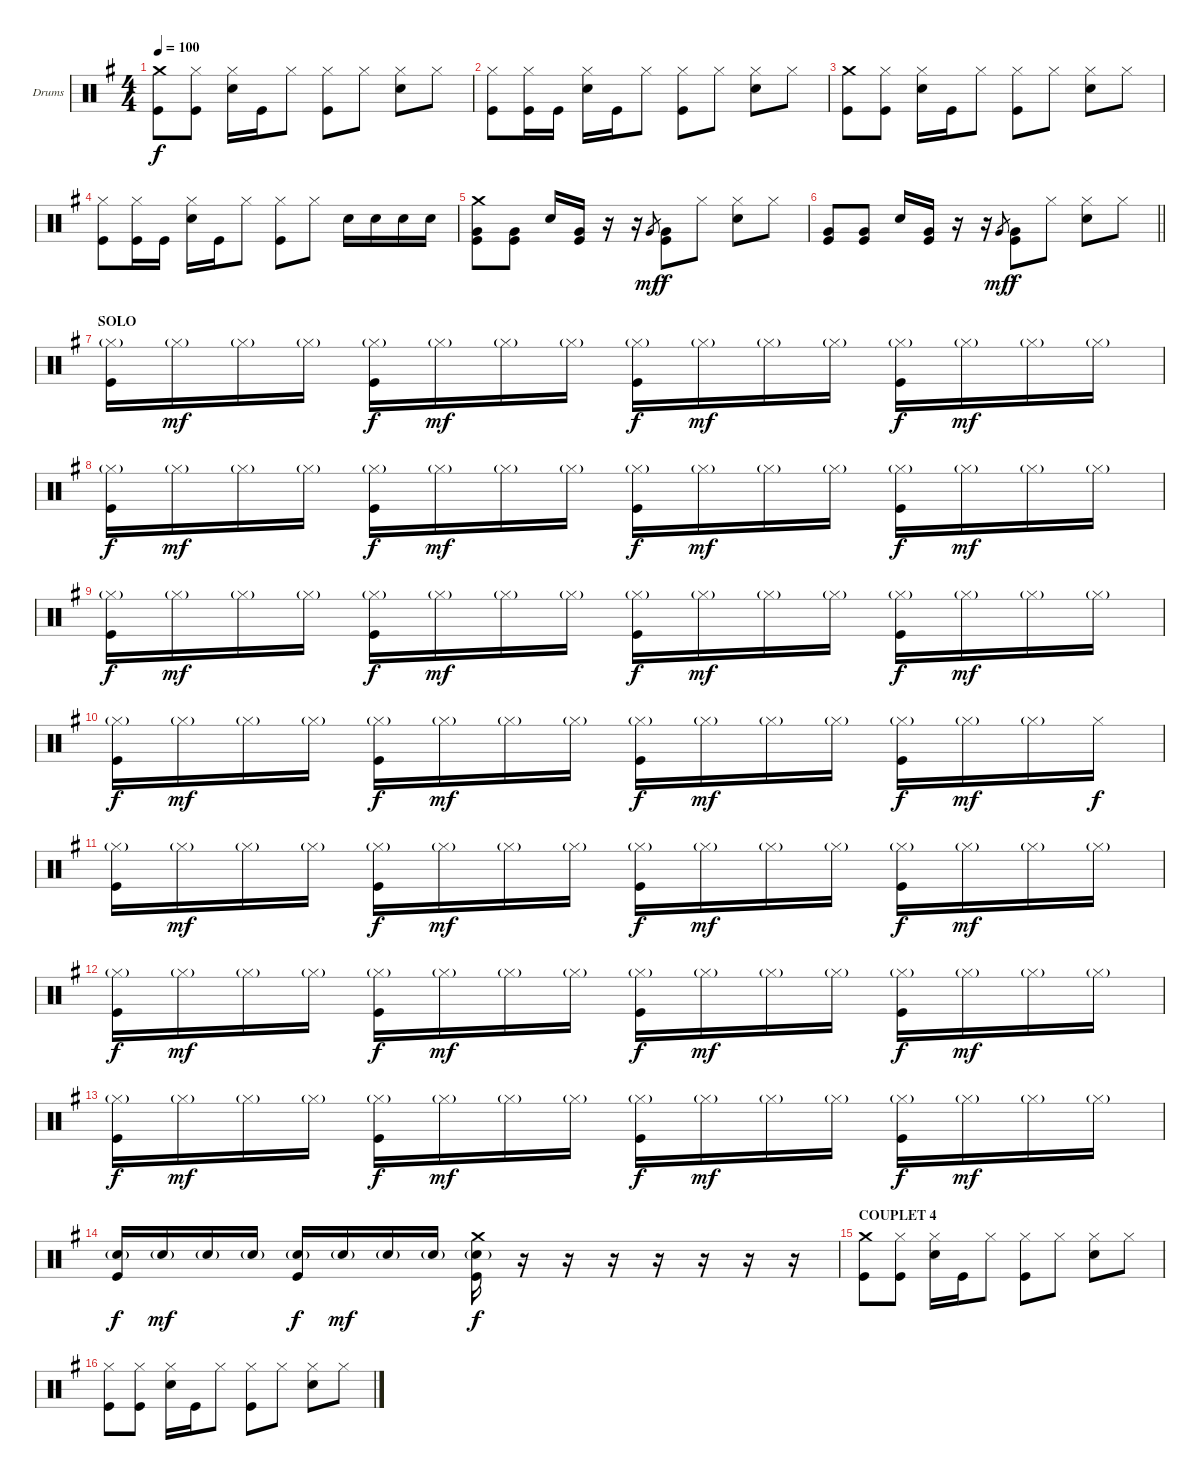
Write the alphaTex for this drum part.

\bracketExtendMode groupsimilarinstruments
\firstSystemTrackNameOrientation horizontal
\otherSystemsTrackNameOrientation horizontal
\track ("Drumkit" "Drums") {instrument percussion}
\staff {score}
\articulation defaults
\ts (4 4)
\tempo 100
\clef neutral
\ks eminor
("Crash medium (hit)" "Kick (hit)").8{dy f} ("Hi-Hat (closed)" "Kick (hit)").8 ("Hi-Hat (closed)" "Snare (hit) 2").16 "Kick (hit)".16 "Hi-Hat (closed)".8 ("Hi-Hat (closed)" "Kick (hit)").8 "Hi-Hat (closed)".8 ("Hi-Hat (closed)" "Snare (hit) 2").8 "Hi-Hat (closed)".8 |
("Hi-Hat (closed)" "Kick (hit)").8 ("Hi-Hat (closed)" "Kick (hit)").16 "Kick (hit)".16 ("Hi-Hat (closed)" "Snare (hit) 2").16 "Kick (hit)".16 "Hi-Hat (closed)".8 ("Hi-Hat (closed)" "Kick (hit)").8 "Hi-Hat (closed)".8 ("Hi-Hat (closed)" "Snare (hit) 2").8 "Hi-Hat (closed)".8 |
("Crash medium (hit)" "Kick (hit)").8 ("Hi-Hat (closed)" "Kick (hit)").8 ("Hi-Hat (closed)" "Snare (hit) 2").16 "Kick (hit)".16 "Hi-Hat (closed)".8 ("Hi-Hat (closed)" "Kick (hit)").8 "Hi-Hat (closed)".8 ("Hi-Hat (closed)" "Snare (hit) 2").8 "Hi-Hat (closed)".8 |
("Hi-Hat (closed)" "Kick (hit)").8 ("Hi-Hat (closed)" "Kick (hit)").16 "Kick (hit)".16 ("Hi-Hat (closed)" "Snare (hit) 2").16 "Kick (hit)".16 "Hi-Hat (closed)".8 ("Hi-Hat (closed)" "Kick (hit)").8 "Hi-Hat (closed)".8 "Snare (hit) 2".16 "Snare (hit) 2".16 "Snare (hit) 2".16 "Snare (hit) 2".16 |
("Very Low Tom (hit)" "Kick (hit)" "Crash medium (hit)").8 ("Very Low Tom (hit)" "Kick (hit)").8 "Snare (hit) 2".16 ("Very Low Tom (hit)" "Kick (hit)").16 r.16 r.16 "Very Low Tom (hit)".8{gr dy mf} ("Very Low Tom (hit)" "Kick (hit)").8{dy f} "Hi-Hat (closed)".8 ("Hi-Hat (closed)" "Snare (hit) 2").8 "Hi-Hat (closed)".8 |
\barLineRight lightlight
("Very Low Tom (hit)" "Kick (hit)").8 ("Very Low Tom (hit)" "Kick (hit)").8 "Snare (hit) 2".16 ("Very Low Tom (hit)" "Kick (hit)").16 r.16 r.16 "Very Low Tom (hit)".8{gr dy mf} ("Very Low Tom (hit)" "Kick (hit)").8{dy f} "Hi-Hat (closed)".8 ("Hi-Hat (closed)" "Snare (hit) 2").8 "Hi-Hat (closed)".8 |
\section ("" "SOLO")
("Kick (hit)" "Hi-Hat (closed)"{g}).16 "Hi-Hat (closed)"{g}.16{dy mf} "Hi-Hat (closed)"{g}.16 "Hi-Hat (closed)"{g}.16 ("Kick (hit)" "Hi-Hat (closed)"{g}).16{dy f} "Hi-Hat (closed)"{g}.16{dy mf} "Hi-Hat (closed)"{g}.16 "Hi-Hat (closed)"{g}.16 ("Kick (hit)" "Hi-Hat (closed)"{g}).16{dy f} "Hi-Hat (closed)"{g}.16{dy mf} "Hi-Hat (closed)"{g}.16 "Hi-Hat (closed)"{g}.16 ("Kick (hit)" "Hi-Hat (closed)"{g}).16{dy f} "Hi-Hat (closed)"{g}.16{dy mf} "Hi-Hat (closed)"{g}.16 "Hi-Hat (closed)"{g}.16 |
("Kick (hit)" "Hi-Hat (closed)"{g}).16{dy f} "Hi-Hat (closed)"{g}.16{dy mf} "Hi-Hat (closed)"{g}.16 "Hi-Hat (closed)"{g}.16 ("Kick (hit)" "Hi-Hat (closed)"{g}).16{dy f} "Hi-Hat (closed)"{g}.16{dy mf} "Hi-Hat (closed)"{g}.16 "Hi-Hat (closed)"{g}.16 ("Kick (hit)" "Hi-Hat (closed)"{g}).16{dy f} "Hi-Hat (closed)"{g}.16{dy mf} "Hi-Hat (closed)"{g}.16 "Hi-Hat (closed)"{g}.16 ("Kick (hit)" "Hi-Hat (closed)"{g}).16{dy f} "Hi-Hat (closed)"{g}.16{dy mf} "Hi-Hat (closed)"{g}.16 "Hi-Hat (closed)"{g}.16 |
("Kick (hit)" "Hi-Hat (closed)"{g}).16{dy f} "Hi-Hat (closed)"{g}.16{dy mf} "Hi-Hat (closed)"{g}.16 "Hi-Hat (closed)"{g}.16 ("Kick (hit)" "Hi-Hat (closed)"{g}).16{dy f} "Hi-Hat (closed)"{g}.16{dy mf} "Hi-Hat (closed)"{g}.16 "Hi-Hat (closed)"{g}.16 ("Kick (hit)" "Hi-Hat (closed)"{g}).16{dy f} "Hi-Hat (closed)"{g}.16{dy mf} "Hi-Hat (closed)"{g}.16 "Hi-Hat (closed)"{g}.16 ("Kick (hit)" "Hi-Hat (closed)"{g}).16{dy f} "Hi-Hat (closed)"{g}.16{dy mf} "Hi-Hat (closed)"{g}.16 "Hi-Hat (closed)"{g}.16 |
("Kick (hit)" "Hi-Hat (closed)"{g}).16{dy f} "Hi-Hat (closed)"{g}.16{dy mf} "Hi-Hat (closed)"{g}.16 "Hi-Hat (closed)"{g}.16 ("Kick (hit)" "Hi-Hat (closed)"{g}).16{dy f} "Hi-Hat (closed)"{g}.16{dy mf} "Hi-Hat (closed)"{g}.16 "Hi-Hat (closed)"{g}.16 ("Kick (hit)" "Hi-Hat (closed)"{g}).16{dy f} "Hi-Hat (closed)"{g}.16{dy mf} "Hi-Hat (closed)"{g}.16 "Hi-Hat (closed)"{g}.16 ("Kick (hit)" "Hi-Hat (closed)"{g}).16{dy f} "Hi-Hat (closed)"{g}.16{dy mf} "Hi-Hat (closed)"{g}.16 "Hi-Hat (closed)".16{dy f} |
("Kick (hit)" "Hi-Hat (closed)"{g}).16 "Hi-Hat (closed)"{g}.16{dy mf} "Hi-Hat (closed)"{g}.16 "Hi-Hat (closed)"{g}.16 ("Kick (hit)" "Hi-Hat (closed)"{g}).16{dy f} "Hi-Hat (closed)"{g}.16{dy mf} "Hi-Hat (closed)"{g}.16 "Hi-Hat (closed)"{g}.16 ("Kick (hit)" "Hi-Hat (closed)"{g}).16{dy f} "Hi-Hat (closed)"{g}.16{dy mf} "Hi-Hat (closed)"{g}.16 "Hi-Hat (closed)"{g}.16 ("Kick (hit)" "Hi-Hat (closed)"{g}).16{dy f} "Hi-Hat (closed)"{g}.16{dy mf} "Hi-Hat (closed)"{g}.16 "Hi-Hat (closed)"{g}.16 |
("Kick (hit)" "Hi-Hat (closed)"{g}).16{dy f} "Hi-Hat (closed)"{g}.16{dy mf} "Hi-Hat (closed)"{g}.16 "Hi-Hat (closed)"{g}.16 ("Kick (hit)" "Hi-Hat (closed)"{g}).16{dy f} "Hi-Hat (closed)"{g}.16{dy mf} "Hi-Hat (closed)"{g}.16 "Hi-Hat (closed)"{g}.16 ("Kick (hit)" "Hi-Hat (closed)"{g}).16{dy f} "Hi-Hat (closed)"{g}.16{dy mf} "Hi-Hat (closed)"{g}.16 "Hi-Hat (closed)"{g}.16 ("Kick (hit)" "Hi-Hat (closed)"{g}).16{dy f} "Hi-Hat (closed)"{g}.16{dy mf} "Hi-Hat (closed)"{g}.16 "Hi-Hat (closed)"{g}.16 |
("Kick (hit)" "Hi-Hat (closed)"{g}).16{dy f} "Hi-Hat (closed)"{g}.16{dy mf} "Hi-Hat (closed)"{g}.16 "Hi-Hat (closed)"{g}.16 ("Kick (hit)" "Hi-Hat (closed)"{g}).16{dy f} "Hi-Hat (closed)"{g}.16{dy mf} "Hi-Hat (closed)"{g}.16 "Hi-Hat (closed)"{g}.16 ("Kick (hit)" "Hi-Hat (closed)"{g}).16{dy f} "Hi-Hat (closed)"{g}.16{dy mf} "Hi-Hat (closed)"{g}.16 "Hi-Hat (closed)"{g}.16 ("Kick (hit)" "Hi-Hat (closed)"{g}).16{dy f} "Hi-Hat (closed)"{g}.16{dy mf} "Hi-Hat (closed)"{g}.16 "Hi-Hat (closed)"{g}.16 |
("Kick (hit)" "Snare (hit) 2"{g}).16{dy f} "Snare (hit) 2"{g}.16{dy mf} "Snare (hit) 2"{g}.16 "Snare (hit) 2"{g}.16 ("Kick (hit)" "Snare (hit) 2"{g}).16{dy f} "Snare (hit) 2"{g}.16{dy mf} "Snare (hit) 2"{g}.16 "Snare (hit) 2"{g}.16 ("Crash medium (hit)" "Snare (hit) 2"{g} "Kick (hit)").16{dy f} r.16 r.16 r.16 r.16 r.16 r.16 r.16 |
\section ("" "COUPLET 4")
("Crash medium (hit)" "Kick (hit)").8 ("Hi-Hat (closed)" "Kick (hit)").8 ("Hi-Hat (closed)" "Snare (hit) 2").16 "Kick (hit)".16 "Hi-Hat (closed)".8 ("Hi-Hat (closed)" "Kick (hit)").8 "Hi-Hat (closed)".8 ("Hi-Hat (closed)" "Snare (hit) 2").8 "Hi-Hat (closed)".8 |
("Hi-Hat (closed)" "Kick (hit)").8 ("Hi-Hat (closed)" "Kick (hit)").8 ("Hi-Hat (closed)" "Snare (hit) 2").16 "Kick (hit)".16 "Hi-Hat (closed)".8 ("Hi-Hat (closed)" "Kick (hit)").8 "Hi-Hat (closed)".8 ("Hi-Hat (closed)" "Snare (hit) 2").8 "Hi-Hat (closed)".8
